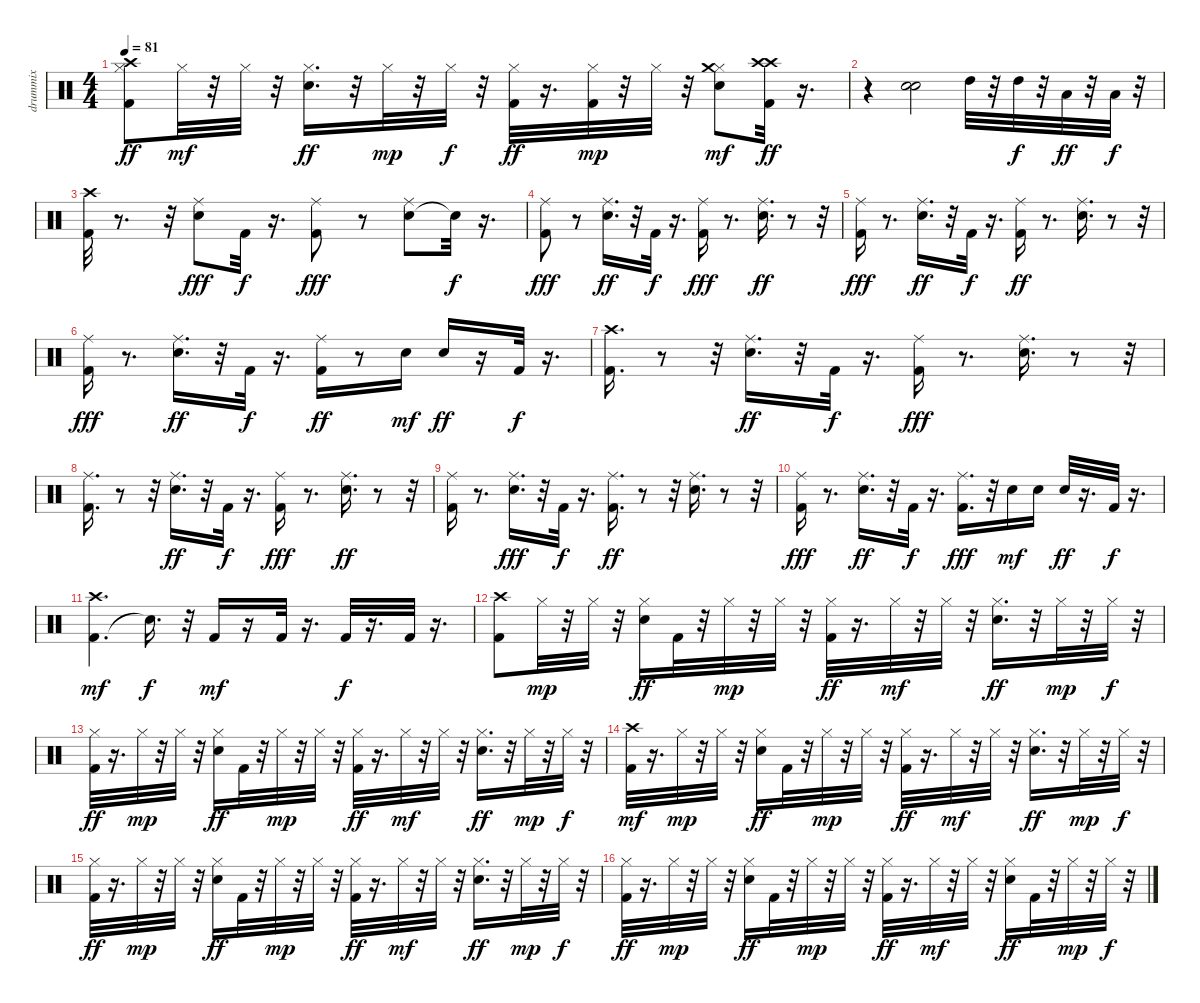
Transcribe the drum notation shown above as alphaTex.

\track ("drummix " "drummix ") {instrument percussion}
\staff {score}
\articulation defaults
\ts (4 4)
\tempo 81
\clef neutral
\ks c
("Kick (hit) 2" "Hi-Hat (closed)" "Crash high (hit)").8{dy ff} "Hi-Hat (closed)".32{dy mf} r.32 "Hi-Hat (closed)".32 r.32 ("Snare (hit) 2" "Hi-Hat (closed)").16{d dy ff} r.32 "Hi-Hat (closed)".32{dy mp} r.32 "Hi-Hat (closed)".32{dy f} r.32 ("Kick (hit) 2" "Hi-Hat (closed)").32{dy ff} r.16{d} ("Kick (hit) 2" "Hi-Hat (closed)").32{dy mp} r.32 "Hi-Hat (closed)".32 r.32 ("Snare (hit) 2" "Hi-Hat (closed)" "Crash medium (hit)").8{dy mf} ("Kick (hit) 2" "Crash high (hit)" "Crash high (hit)").32{dy ff} r.16{d} |
r.4 ("Snare (hit) 2" "Snare (hit) 2").2 "High Tom (hit)".32 r.32 "High Tom (hit)".32{dy f} r.32 "Low Tom (hit)".32{dy ff} r.32 "Low Tom (hit)".32{dy f} r.32 |
("Kick (hit) 2" "Crash high (hit)").32 r.8{d} r.32 ("Snare (hit) 2" "Ride (middle)").8{dy fff} "Kick (hit) 2".32{dy f} r.16{d} ("Kick (hit) 2" "Ride (middle)").8{dy fff} r.8 ("Snare (hit) 2" "Ride (middle)").8 "Snare (hit)"{t}.32{dy f} r.16{d} |
("Kick (hit) 2" "Ride (middle)").8{dy fff} r.8 ("Snare (hit) 2" "Ride (middle)").16{d dy ff} r.32 "Kick (hit) 2".32{dy f} r.16{d} ("Kick (hit) 2" "Ride (middle)").16{dy fff} r.8{d} ("Snare (hit) 2" "Ride (middle)").16{d dy ff} r.8 r.32 |
("Kick (hit) 2" "Ride (middle)").16{dy fff} r.8{d} ("Snare (hit) 2" "Ride (middle)").16{d dy ff} r.32 "Kick (hit) 2".32{dy f} r.16{d} ("Kick (hit) 2" "Ride (middle)").16{dy ff} r.8{d} ("Snare (hit) 2" "Ride (middle)").16{d} r.8 r.32 |
("Kick (hit) 2" "Ride (middle)").16{dy fff} r.8{d} ("Snare (hit) 2" "Ride (middle)").16{d dy ff} r.32 "Kick (hit) 2".32{dy f} r.16{d} ("Kick (hit) 2" "Ride (middle)").16{dy ff} r.8 "Snare (hit) 2".16{dy mf} "Snare (hit) 2".16{dy ff} r.16 "Kick (hit) 2".32{dy f} r.16{d} |
("Kick (hit) 2" "Crash high (hit)").16{d} r.8 r.32 ("Snare (hit) 2" "Ride (middle)").16{d dy ff} r.32 "Kick (hit) 2".32{dy f} r.16{d} ("Kick (hit) 2" "Ride (middle)").16{dy fff} r.8{d} ("Snare (hit) 2" "Ride (middle)").16{d} r.8 r.32 |
("Kick (hit) 2" "Ride (middle)").16{d} r.8 r.32 ("Snare (hit) 2" "Ride (middle)").16{d dy ff} r.32 "Kick (hit) 2".32{dy f} r.16{d} ("Kick (hit) 2" "Ride (middle)").16{dy fff} r.8{d} ("Snare (hit) 2" "Ride (middle)").16{d dy ff} r.8 r.32 |
("Kick (hit) 2" "Ride (middle)").16 r.8{d} ("Snare (hit) 2" "Ride (middle)").16{d dy fff} r.32 "Kick (hit) 2".32{dy f} r.16{d} ("Kick (hit) 2" "Ride (middle)").16{d dy ff} r.8 r.32 ("Snare (hit) 2" "Ride (middle)").16{d} r.8 r.32 |
("Kick (hit) 2" "Ride (middle)").16{dy fff} r.8{d} ("Snare (hit) 2" "Ride (middle)").16{d dy ff} r.32 "Kick (hit) 2".32{dy f} r.16{d} ("Kick (hit) 2" "Ride (middle)").16{d dy fff} r.32 "Snare (hit) 2".16{dy mf} "Snare (hit) 2".16 "Snare (hit) 2".32{dy ff} r.16{d} "Kick (hit) 2".32{dy f} r.16{d} |
("Kick (hit) 2" "Crash high (hit)").4{d dy mf} "Snare (hit)"{t}.16{d dy f} r.32 "Kick (hit) 2".16{dy mf} r.16 "Kick (hit) 2".32 r.16{d} "Kick (hit) 2".32{dy f} r.16{d} "Kick (hit) 2".32 r.16{d} |
("Kick (hit) 2" "Crash high (hit)").8 "Hi-Hat (closed)".32{dy mp} r.32 "Hi-Hat (closed)".32 r.32 ("Snare (hit) 2" "Hi-Hat (closed)").16{dy ff} "Kick (hit) 2".32 r.32 "Hi-Hat (closed)".32{dy mp} r.32 "Hi-Hat (closed)".32 r.32 ("Kick (hit) 2" "Hi-Hat (closed)").32{dy ff} r.16{d} "Hi-Hat (closed)".32{dy mf} r.32 "Hi-Hat (closed)".32 r.32 ("Snare (hit) 2" "Hi-Hat (closed)").16{d dy ff} r.32 "Hi-Hat (closed)".32{dy mp} r.32 "Hi-Hat (closed)".32{dy f} r.32 |
("Kick (hit) 2" "Hi-Hat (closed)").32{dy ff} r.16{d} "Hi-Hat (closed)".32{dy mp} r.32 "Hi-Hat (closed)".32 r.32 ("Snare (hit) 2" "Hi-Hat (closed)").16{dy ff} "Kick (hit) 2".32 r.32 "Hi-Hat (closed)".32{dy mp} r.32 "Hi-Hat (closed)".32 r.32 ("Kick (hit) 2" "Hi-Hat (closed)").32{dy ff} r.16{d} "Hi-Hat (closed)".32{dy mf} r.32 "Hi-Hat (closed)".32 r.32 ("Snare (hit) 2" "Hi-Hat (closed)").16{d dy ff} r.32 "Hi-Hat (closed)".32{dy mp} r.32 "Hi-Hat (closed)".32{dy f} r.32 |
("Kick (hit) 2" "Crash high (hit)").32{dy mf} r.16{d} "Hi-Hat (closed)".32{dy mp} r.32 "Hi-Hat (closed)".32 r.32 ("Snare (hit) 2" "Hi-Hat (closed)").16{dy ff} "Kick (hit) 2".32 r.32 "Hi-Hat (closed)".32{dy mp} r.32 "Hi-Hat (closed)".32 r.32 ("Kick (hit) 2" "Hi-Hat (closed)").32{dy ff} r.16{d} "Hi-Hat (closed)".32{dy mf} r.32 "Hi-Hat (closed)".32 r.32 ("Snare (hit) 2" "Hi-Hat (closed)").16{d dy ff} r.32 "Hi-Hat (closed)".32{dy mp} r.32 "Hi-Hat (closed)".32{dy f} r.32 |
("Kick (hit) 2" "Hi-Hat (closed)").32{dy ff} r.16{d} "Hi-Hat (closed)".32{dy mp} r.32 "Hi-Hat (closed)".32 r.32 ("Snare (hit) 2" "Hi-Hat (closed)").16{dy ff} "Kick (hit) 2".32 r.32 "Hi-Hat (closed)".32{dy mp} r.32 "Hi-Hat (closed)".32 r.32 ("Kick (hit) 2" "Hi-Hat (closed)").32{dy ff} r.16{d} "Hi-Hat (closed)".32{dy mf} r.32 "Hi-Hat (closed)".32 r.32 ("Snare (hit) 2" "Hi-Hat (closed)").16{d dy ff} r.32 "Hi-Hat (closed)".32{dy mp} r.32 "Hi-Hat (closed)".32{dy f} r.32 |
("Kick (hit) 2" "Hi-Hat (closed)").32{dy ff} r.16{d} "Hi-Hat (closed)".32{dy mp} r.32 "Hi-Hat (closed)".32 r.32 ("Snare (hit) 2" "Hi-Hat (closed)").16{dy ff} "Kick (hit) 2".32 r.32 "Hi-Hat (closed)".32{dy mp} r.32 "Hi-Hat (closed)".32 r.32 ("Kick (hit) 2" "Hi-Hat (closed)").32{dy ff} r.16{d} "Hi-Hat (closed)".32{dy mf} r.32 "Hi-Hat (closed)".32 r.32 ("Snare (hit) 2" "Hi-Hat (closed)").16{dy ff} "Kick (hit) 2".32 r.32 "Hi-Hat (closed)".32{dy mp} r.32 "Hi-Hat (closed)".32{dy f} r.32
